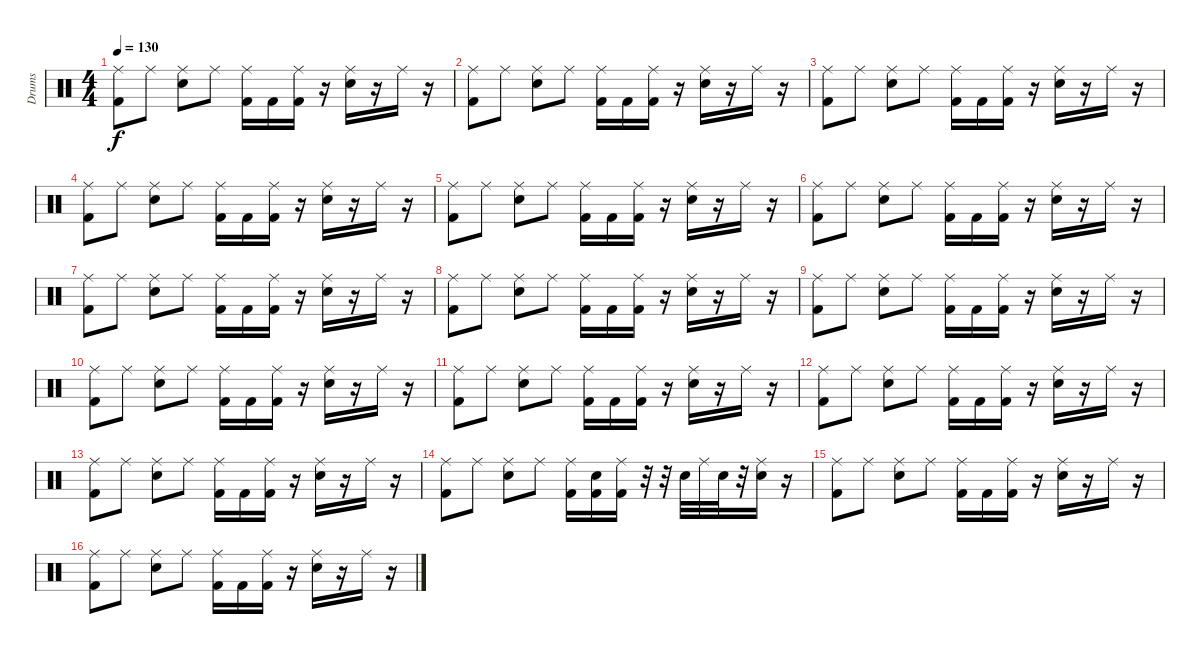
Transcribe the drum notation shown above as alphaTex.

\track ("Drums" "Drums") {instrument percussion}
\staff {score}
\articulation defaults
\ts (4 4)
\tempo 130
\clef neutral
\ks c
("Ride (middle)" "Kick (hit) 2").8{dy f} "Ride (middle)".8 ("Ride (middle)" "Electric Snare (hit)").8 "Ride (middle)".8 ("Ride (middle)" "Kick (hit) 2").16 "Kick (hit) 2".16 ("Ride (middle)" "Kick (hit) 2").16 r.16 ("Ride (middle)" "Electric Snare (hit)").16 r.16 "Ride (middle)".16 r.16 |
("Ride (middle)" "Kick (hit) 2").8 "Ride (middle)".8 ("Ride (middle)" "Electric Snare (hit)").8 "Ride (middle)".8 ("Ride (middle)" "Kick (hit) 2").16 "Kick (hit) 2".16 ("Ride (middle)" "Kick (hit) 2").16 r.16 ("Ride (middle)" "Electric Snare (hit)").16 r.16 "Ride (middle)".16 r.16 |
("Ride (middle)" "Kick (hit) 2").8 "Ride (middle)".8 ("Ride (middle)" "Electric Snare (hit)").8 "Ride (middle)".8 ("Ride (middle)" "Kick (hit) 2").16 "Kick (hit) 2".16 ("Ride (middle)" "Kick (hit) 2").16 r.16 ("Ride (middle)" "Electric Snare (hit)").16 r.16 "Ride (middle)".16 r.16 |
("Ride (middle)" "Kick (hit) 2").8 "Ride (middle)".8 ("Ride (middle)" "Electric Snare (hit)").8 "Ride (middle)".8 ("Ride (middle)" "Kick (hit) 2").16 "Kick (hit) 2".16 ("Ride (middle)" "Kick (hit) 2").16 r.16 ("Ride (middle)" "Electric Snare (hit)").16 r.16 "Ride (middle)".16 r.16 |
("Ride (middle)" "Kick (hit) 2").8 "Ride (middle)".8 ("Ride (middle)" "Electric Snare (hit)").8 "Ride (middle)".8 ("Ride (middle)" "Kick (hit) 2").16 "Kick (hit) 2".16 ("Ride (middle)" "Kick (hit) 2").16 r.16 ("Ride (middle)" "Electric Snare (hit)").16 r.16 "Ride (middle)".16 r.16 |
("Ride (middle)" "Kick (hit) 2").8 "Ride (middle)".8 ("Ride (middle)" "Electric Snare (hit)").8 "Ride (middle)".8 ("Ride (middle)" "Kick (hit) 2").16 "Kick (hit) 2".16 ("Ride (middle)" "Kick (hit) 2").16 r.16 ("Ride (middle)" "Electric Snare (hit)").16 r.16 "Ride (middle)".16 r.16 |
("Ride (middle)" "Kick (hit) 2").8 "Ride (middle)".8 ("Ride (middle)" "Electric Snare (hit)").8 "Ride (middle)".8 ("Ride (middle)" "Kick (hit) 2").16 "Kick (hit) 2".16 ("Ride (middle)" "Kick (hit) 2").16 r.16 ("Ride (middle)" "Electric Snare (hit)").16 r.16 "Ride (middle)".16 r.16 |
("Ride (middle)" "Kick (hit) 2").8 "Ride (middle)".8 ("Ride (middle)" "Electric Snare (hit)").8 "Ride (middle)".8 ("Ride (middle)" "Kick (hit) 2").16 "Kick (hit) 2".16 ("Ride (middle)" "Kick (hit) 2").16 r.16 ("Ride (middle)" "Electric Snare (hit)").16 r.16 "Ride (middle)".16 r.16 |
("Ride (middle)" "Kick (hit) 2").8 "Ride (middle)".8 ("Ride (middle)" "Electric Snare (hit)").8 "Ride (middle)".8 ("Ride (middle)" "Kick (hit) 2").16 "Kick (hit) 2".16 ("Ride (middle)" "Kick (hit) 2").16 r.16 ("Ride (middle)" "Electric Snare (hit)").16 r.16 "Ride (middle)".16 r.16 |
("Ride (middle)" "Kick (hit) 2").8 "Ride (middle)".8 ("Ride (middle)" "Electric Snare (hit)").8 "Ride (middle)".8 ("Ride (middle)" "Kick (hit) 2").16 "Kick (hit) 2".16 ("Ride (middle)" "Kick (hit) 2").16 r.16 ("Ride (middle)" "Electric Snare (hit)").16 r.16 "Ride (middle)".16 r.16 |
("Ride (middle)" "Kick (hit) 2").8 "Ride (middle)".8 ("Ride (middle)" "Electric Snare (hit)").8 "Ride (middle)".8 ("Ride (middle)" "Kick (hit) 2").16 "Kick (hit) 2".16 ("Ride (middle)" "Kick (hit) 2").16 r.16 ("Ride (middle)" "Electric Snare (hit)").16 r.16 "Ride (middle)".16 r.16 |
("Ride (middle)" "Kick (hit) 2").8 "Ride (middle)".8 ("Ride (middle)" "Electric Snare (hit)").8 "Ride (middle)".8 ("Ride (middle)" "Kick (hit) 2").16 "Kick (hit) 2".16 ("Ride (middle)" "Kick (hit) 2").16 r.16 ("Ride (middle)" "Electric Snare (hit)").16 r.16 "Ride (middle)".16 r.16 |
("Ride (middle)" "Kick (hit) 2").8 "Ride (middle)".8 ("Ride (middle)" "Electric Snare (hit)").8 "Ride (middle)".8 ("Ride (middle)" "Kick (hit) 2").16 "Kick (hit) 2".16 ("Ride (middle)" "Kick (hit) 2").16 r.16 ("Ride (middle)" "Electric Snare (hit)").16 r.16 "Ride (middle)".16 r.16 |
("Ride (middle)" "Kick (hit) 2").8 "Ride (middle)".8 ("Ride (middle)" "Electric Snare (hit)").8 "Ride (middle)".8 ("Ride (middle)" "Kick (hit) 2").16 ("Electric Snare (hit)" "Kick (hit) 2").16 ("Ride (middle)" "Kick (hit) 2").16 r.32 r.32 "Electric Snare (hit)".32 "Ride (middle)".32 "Electric Snare (hit)".32 r.32 ("Ride (middle)" "Electric Snare (hit)").16 r.16 |
("Ride (middle)" "Kick (hit) 2").8 "Ride (middle)".8 ("Ride (middle)" "Electric Snare (hit)").8 "Ride (middle)".8 ("Ride (middle)" "Kick (hit) 2").16 "Kick (hit) 2".16 ("Ride (middle)" "Kick (hit) 2").16 r.16 ("Ride (middle)" "Electric Snare (hit)").16 r.16 "Ride (middle)".16 r.16 |
("Ride (middle)" "Kick (hit) 2").8 "Ride (middle)".8 ("Ride (middle)" "Electric Snare (hit)").8 "Ride (middle)".8 ("Ride (middle)" "Kick (hit) 2").16 "Kick (hit) 2".16 ("Ride (middle)" "Kick (hit) 2").16 r.16 ("Ride (middle)" "Electric Snare (hit)").16 r.16 "Ride (middle)".16 r.16
